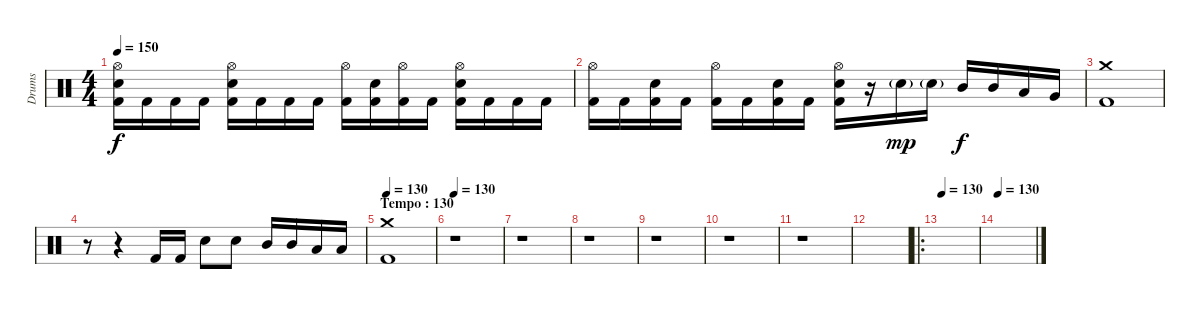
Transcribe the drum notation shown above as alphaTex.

\track ("Drums" "Drums") {instrument percussion}
\staff {score}
\articulation defaults
\ts (4 4)
\tempo 150
\clef neutral
\ks c
("Kick (hit) 2" "Electric Snare (hit)" "Hi-Hat (open)").16{dy f} "Kick (hit) 2".16 "Kick (hit) 2".16 "Kick (hit) 2".16 ("Kick (hit) 2" "Electric Snare (hit)" "Hi-Hat (open)").16 "Kick (hit) 2".16 "Kick (hit) 2".16 "Kick (hit) 2".16 ("Kick (hit) 2" "Hi-Hat (open)").16 ("Kick (hit) 2" "Electric Snare (hit)").16 ("Kick (hit) 2" "Hi-Hat (open)").16 "Kick (hit) 2".16 ("Kick (hit) 2" "Electric Snare (hit)" "Hi-Hat (open)").16 "Kick (hit) 2".16 "Kick (hit) 2".16 "Kick (hit) 2".16 |
("Kick (hit) 2" "Hi-Hat (open)").16 "Kick (hit) 2".16 ("Kick (hit) 2" "Electric Snare (hit)").16 "Kick (hit) 2".16 ("Kick (hit) 2" "Hi-Hat (open)").16 "Kick (hit) 2".16 ("Kick (hit) 2" "Electric Snare (hit)").16 "Kick (hit) 2".16 ("Kick (hit) 2" "Electric Snare (hit)" "Hi-Hat (open)").16 r.16 "Electric Snare (hit)"{g}.16{dy mp} "Electric Snare (hit)"{g}.16 "Mid Tom (hit)".16{dy f} "Mid Tom (hit)".16 "Low Tom (hit)".16 "Very Low Tom (hit)".16 |
("Kick (hit) 2" "Crash medium (hit)").1 |
r.8 r.4 "Kick (hit) 2".16 "Kick (hit) 2".16 "Electric Snare (hit)".8 "Electric Snare (hit)".8 "Mid Tom (hit)".16 "Mid Tom (hit)".16 "Low Tom (hit)".16 "Low Tom (hit)".16 |
\section ("" "Tempo : 130")
\tempo 130
("Kick (hit) 2" "Crash medium (hit)").1 |
\tempo 130
r.1 |
r.1 |
r.1 |
r.1 |
r.1 |
r.1 |
|
\ro
\tempo 130
|
\tempo 130
